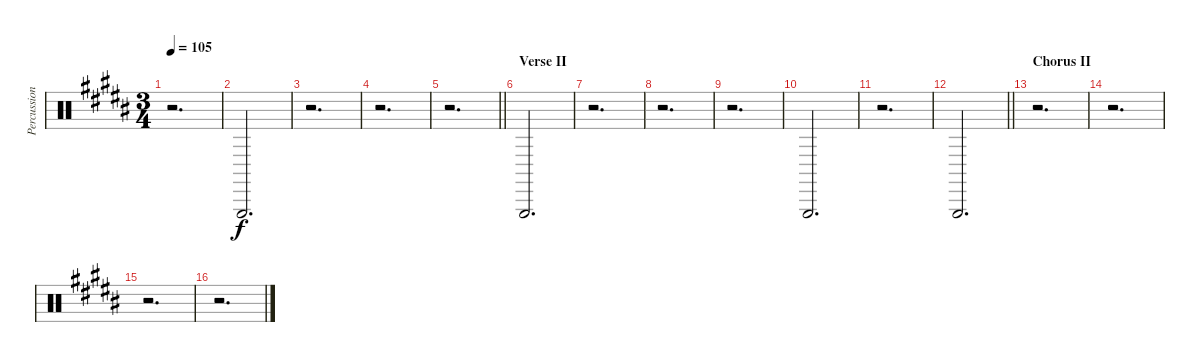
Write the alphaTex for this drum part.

\track ("Percussion" "Percussion") {instrument percussion}
\staff {score}
\articulation defaults
\ts (3 4)
\tempo 105
\clef neutral
\ks b
r.2{d dy f} |
"Triangle (hit)".2{d} |
r.2{d} |
r.2{d} |
\barLineRight lightlight
r.2{d} |
\section ("" "Verse II")
"Triangle (hit)".2{d} |
r.2{d} |
r.2{d} |
r.2{d} |
"Triangle (hit)".2{d} |
r.2{d} |
\barLineRight lightlight "Triangle (hit)".2{d}
|
\section ("" "Chorus II")
r.2{d} |
r.2{d} |
r.2{d} |
r.2{d}
